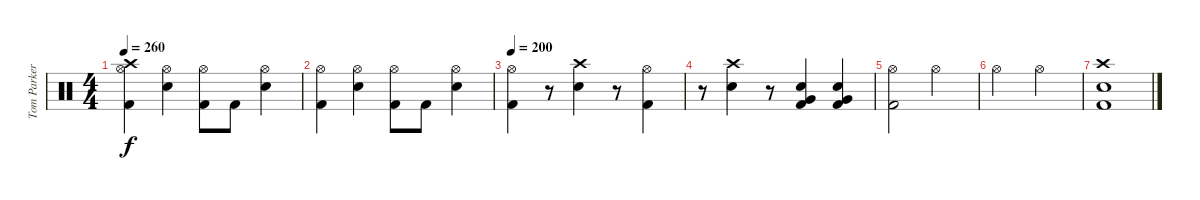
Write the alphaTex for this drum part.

\track ("Tom Parker" "Tom Parker") {instrument percussion}
\staff {score}
\articulation defaults
\ts (4 4)
\tempo 260
\clef neutral
\ks c
("Crash high (hit)" "Hi-Hat (open)" "Kick (hit) 2").4{dy f} ("Hi-Hat (open)" "Electric Snare (hit)").4 ("Hi-Hat (open)" "Kick (hit) 2").8 "Kick (hit) 2".8 ("Hi-Hat (open)" "Electric Snare (hit)").4 |
("Hi-Hat (open)" "Kick (hit) 2").4 ("Hi-Hat (open)" "Electric Snare (hit)").4 ("Hi-Hat (open)" "Kick (hit) 2").8 "Kick (hit) 2".8 ("Hi-Hat (open)" "Electric Snare (hit)").4 |
\tempo 200
("Hi-Hat (open)" "Kick (hit) 2").4 r.8 ("Crash high (hit)" "Electric Snare (hit)").4 r.8 ("Hi-Hat (open)" "Kick (hit) 2").4 |
r.8 ("Crash high (hit)" "Electric Snare (hit)").4 r.8 ("Very Low Tom (hit)" "Electric Snare (hit)" "Kick (hit) 2").4 ("Very Low Tom (hit)" "Electric Snare (hit)" "Kick (hit) 2").4 |
("Hi-Hat (open)" "Kick (hit) 2").2 "Hi-Hat (open)".2 |
"Hi-Hat (open)".2 "Hi-Hat (open)".2 |
("Crash high (hit)" "Electric Snare (hit)" "Kick (hit) 2").1
